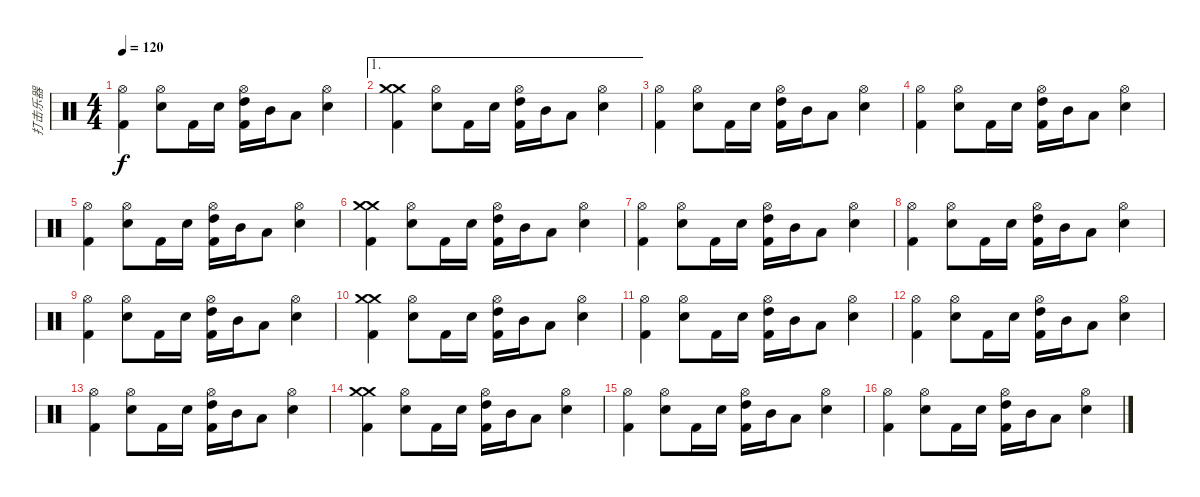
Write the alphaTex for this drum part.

\track ("打击乐器" "打击乐器") {instrument percussion}
\staff {score}
\articulation defaults
\ts (4 4)
\tempo 120
\clef neutral
\ks c
("Hi-Hat (open)" "Kick (hit) 2").4{dy f} ("Hi-Hat (open)" "Snare (hit) 2").8 "Kick (hit) 2".16 "Snare (hit) 2".16 ("Hi-Hat (open)" "High Tom (hit)" "Kick (hit) 2").16 "Mid Tom (hit)".16 "Low Tom (hit)".8 ("Hi-Hat (open)" "Snare (hit) 2").4 |
\ae 1
("Crash medium (hit)" "Crash medium (hit)" "Kick (hit) 2").4 ("Hi-Hat (open)" "Snare (hit) 2").8 "Kick (hit) 2".16 "Snare (hit) 2".16 ("Hi-Hat (open)" "High Tom (hit)" "Kick (hit) 2").16 "Mid Tom (hit)".16 "Low Tom (hit)".8 ("Hi-Hat (open)" "Snare (hit) 2").4 |
("Hi-Hat (open)" "Kick (hit) 2").4 ("Hi-Hat (open)" "Snare (hit) 2").8 "Kick (hit) 2".16 "Snare (hit) 2".16 ("Hi-Hat (open)" "High Tom (hit)" "Kick (hit) 2").16 "Mid Tom (hit)".16 "Low Tom (hit)".8 ("Hi-Hat (open)" "Snare (hit) 2").4 |
("Hi-Hat (open)" "Kick (hit) 2").4 ("Hi-Hat (open)" "Snare (hit) 2").8 "Kick (hit) 2".16 "Snare (hit) 2".16 ("Hi-Hat (open)" "High Tom (hit)" "Kick (hit) 2").16 "Mid Tom (hit)".16 "Low Tom (hit)".8 ("Hi-Hat (open)" "Snare (hit) 2").4 |
("Hi-Hat (open)" "Kick (hit) 2").4 ("Hi-Hat (open)" "Snare (hit) 2").8 "Kick (hit) 2".16 "Snare (hit) 2".16 ("Hi-Hat (open)" "High Tom (hit)" "Kick (hit) 2").16 "Mid Tom (hit)".16 "Low Tom (hit)".8 ("Hi-Hat (open)" "Snare (hit) 2").4 |
("Crash medium (hit)" "Crash medium (hit)" "Kick (hit) 2").4 ("Hi-Hat (open)" "Snare (hit) 2").8 "Kick (hit) 2".16 "Snare (hit) 2".16 ("Hi-Hat (open)" "High Tom (hit)" "Kick (hit) 2").16 "Mid Tom (hit)".16 "Low Tom (hit)".8 ("Hi-Hat (open)" "Snare (hit) 2").4 |
("Hi-Hat (open)" "Kick (hit) 2").4 ("Hi-Hat (open)" "Snare (hit) 2").8 "Kick (hit) 2".16 "Snare (hit) 2".16 ("Hi-Hat (open)" "High Tom (hit)" "Kick (hit) 2").16 "Mid Tom (hit)".16 "Low Tom (hit)".8 ("Hi-Hat (open)" "Snare (hit) 2").4 |
("Hi-Hat (open)" "Kick (hit) 2").4 ("Hi-Hat (open)" "Snare (hit) 2").8 "Kick (hit) 2".16 "Snare (hit) 2".16 ("Hi-Hat (open)" "High Tom (hit)" "Kick (hit) 2").16 "Mid Tom (hit)".16 "Low Tom (hit)".8 ("Hi-Hat (open)" "Snare (hit) 2").4 |
("Hi-Hat (open)" "Kick (hit) 2").4 ("Hi-Hat (open)" "Snare (hit) 2").8 "Kick (hit) 2".16 "Snare (hit) 2".16 ("Hi-Hat (open)" "High Tom (hit)" "Kick (hit) 2").16 "Mid Tom (hit)".16 "Low Tom (hit)".8 ("Hi-Hat (open)" "Snare (hit) 2").4 |
("Crash medium (hit)" "Crash medium (hit)" "Kick (hit) 2").4 ("Hi-Hat (open)" "Snare (hit) 2").8 "Kick (hit) 2".16 "Snare (hit) 2".16 ("Hi-Hat (open)" "High Tom (hit)" "Kick (hit) 2").16 "Mid Tom (hit)".16 "Low Tom (hit)".8 ("Hi-Hat (open)" "Snare (hit) 2").4 |
("Hi-Hat (open)" "Kick (hit) 2").4 ("Hi-Hat (open)" "Snare (hit) 2").8 "Kick (hit) 2".16 "Snare (hit) 2".16 ("Hi-Hat (open)" "High Tom (hit)" "Kick (hit) 2").16 "Mid Tom (hit)".16 "Low Tom (hit)".8 ("Hi-Hat (open)" "Snare (hit) 2").4 |
("Hi-Hat (open)" "Kick (hit) 2").4 ("Hi-Hat (open)" "Snare (hit) 2").8 "Kick (hit) 2".16 "Snare (hit) 2".16 ("Hi-Hat (open)" "High Tom (hit)" "Kick (hit) 2").16 "Mid Tom (hit)".16 "Low Tom (hit)".8 ("Hi-Hat (open)" "Snare (hit) 2").4 |
("Hi-Hat (open)" "Kick (hit) 2").4 ("Hi-Hat (open)" "Snare (hit) 2").8 "Kick (hit) 2".16 "Snare (hit) 2".16 ("Hi-Hat (open)" "High Tom (hit)" "Kick (hit) 2").16 "Mid Tom (hit)".16 "Low Tom (hit)".8 ("Hi-Hat (open)" "Snare (hit) 2").4 |
("Crash medium (hit)" "Crash medium (hit)" "Kick (hit) 2").4 ("Hi-Hat (open)" "Snare (hit) 2").8 "Kick (hit) 2".16 "Snare (hit) 2".16 ("Hi-Hat (open)" "High Tom (hit)" "Kick (hit) 2").16 "Mid Tom (hit)".16 "Low Tom (hit)".8 ("Hi-Hat (open)" "Snare (hit) 2").4 |
("Hi-Hat (open)" "Kick (hit) 2").4 ("Hi-Hat (open)" "Snare (hit) 2").8 "Kick (hit) 2".16 "Snare (hit) 2".16 ("Hi-Hat (open)" "High Tom (hit)" "Kick (hit) 2").16 "Mid Tom (hit)".16 "Low Tom (hit)".8 ("Hi-Hat (open)" "Snare (hit) 2").4 |
("Hi-Hat (open)" "Kick (hit) 2").4 ("Hi-Hat (open)" "Snare (hit) 2").8 "Kick (hit) 2".16 "Snare (hit) 2".16 ("Hi-Hat (open)" "High Tom (hit)" "Kick (hit) 2").16 "Mid Tom (hit)".16 "Low Tom (hit)".8 ("Hi-Hat (open)" "Snare (hit) 2").4
